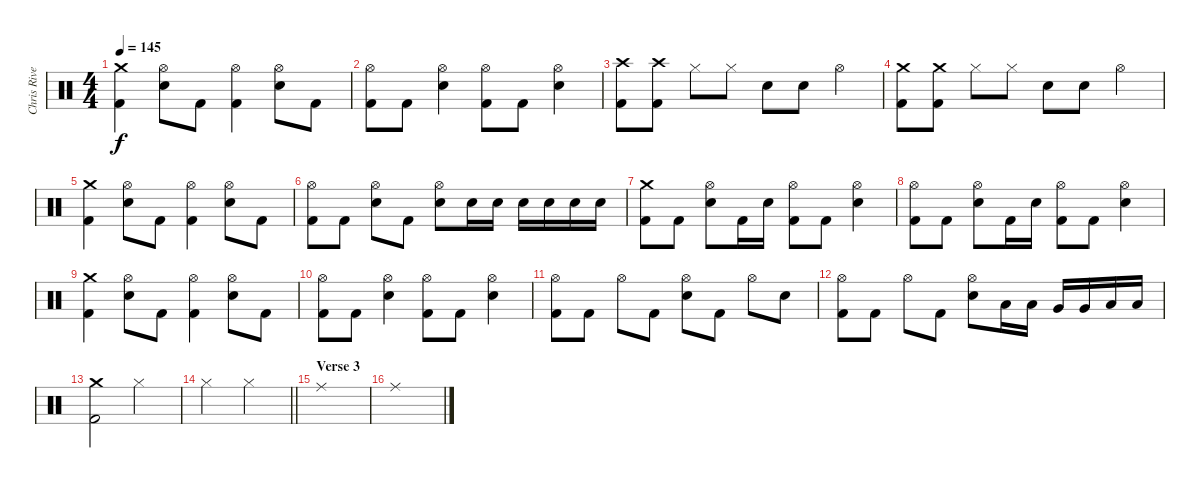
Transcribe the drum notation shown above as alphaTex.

\track ("Chris Rivers" "Chris Rive") {instrument percussion}
\staff {score}
\articulation defaults
\ts (4 4)
\tempo 145
\clef neutral
\ks c
("Crash medium (hit)" "Kick (hit) 2").4{dy f} ("Hi-Hat (open)" "Electric Snare (hit)").8 "Kick (hit) 2".8 ("Hi-Hat (open)" "Kick (hit) 2").4 ("Hi-Hat (open)" "Electric Snare (hit)").8 "Kick (hit) 2".8 |
("Hi-Hat (open)" "Kick (hit) 2").8 "Kick (hit) 2".8 ("Hi-Hat (open)" "Electric Snare (hit)").4 ("Hi-Hat (open)" "Kick (hit) 2").8 "Kick (hit) 2".8 ("Hi-Hat (open)" "Electric Snare (hit)").4 |
("Crash high (hit)" "Kick (hit) 2").8 ("Crash high (hit)" "Kick (hit) 2").8 "Hi-Hat (closed)".8 "Hi-Hat (closed)".8 "Electric Snare (hit)".8 "Electric Snare (hit)".8 "Hi-Hat (open)".4 |
("Crash medium (hit)" "Kick (hit) 2").8 ("Crash medium (hit)" "Kick (hit) 2").8 "Hi-Hat (closed)".8 "Hi-Hat (closed)".8 "Electric Snare (hit)".8 "Electric Snare (hit)".8 "Hi-Hat (open)".4 |
("Crash medium (hit)" "Kick (hit) 2").4 ("Hi-Hat (open)" "Electric Snare (hit)").8 "Kick (hit) 2".8 ("Hi-Hat (open)" "Kick (hit) 2").4 ("Hi-Hat (open)" "Electric Snare (hit)").8 "Kick (hit) 2".8 |
("Hi-Hat (open)" "Kick (hit) 2").8 "Kick (hit) 2".8 ("Hi-Hat (open)" "Electric Snare (hit)").8 "Kick (hit) 2".8 ("Hi-Hat (open)" "Electric Snare (hit)").8 "Electric Snare (hit)".16 "Electric Snare (hit)".16 "Electric Snare (hit)".16 "Electric Snare (hit)".16 "Electric Snare (hit)".16 "Electric Snare (hit)".16 |
("Crash medium (hit)" "Kick (hit) 2").8 "Kick (hit) 2".8 ("Hi-Hat (open)" "Electric Snare (hit)").8 "Kick (hit) 2".16 "Electric Snare (hit)".16 ("Hi-Hat (open)" "Kick (hit) 2").8 "Kick (hit) 2".8 ("Hi-Hat (open)" "Electric Snare (hit)").4 |
("Hi-Hat (open)" "Kick (hit) 2").8 "Kick (hit) 2".8 ("Hi-Hat (open)" "Electric Snare (hit)").8 "Kick (hit) 2".16 "Electric Snare (hit)".16 ("Hi-Hat (open)" "Kick (hit) 2").8 "Kick (hit) 2".8 ("Hi-Hat (open)" "Electric Snare (hit)").4 |
("Crash medium (hit)" "Kick (hit) 2").4 ("Hi-Hat (open)" "Electric Snare (hit)").8 "Kick (hit) 2".8 ("Hi-Hat (open)" "Kick (hit) 2").4 ("Hi-Hat (open)" "Electric Snare (hit)").8 "Kick (hit) 2".8 |
("Hi-Hat (open)" "Kick (hit) 2").8 "Kick (hit) 2".8 ("Hi-Hat (open)" "Electric Snare (hit)").4 ("Hi-Hat (open)" "Kick (hit) 2").8 "Kick (hit) 2".8 ("Hi-Hat (open)" "Electric Snare (hit)").4 |
("Hi-Hat (open)" "Kick (hit) 2").8 "Kick (hit) 2".8 "Hi-Hat (open)".8 "Kick (hit) 2".8 ("Hi-Hat (open)" "Electric Snare (hit)").8 "Kick (hit) 2".8 "Hi-Hat (open)".8 "Electric Snare (hit)".8 |
("Hi-Hat (open)" "Kick (hit) 2").8 "Kick (hit) 2".8 "Hi-Hat (open)".8 "Kick (hit) 2".8 ("Hi-Hat (open)" "Electric Snare (hit)").8 "Low Tom (hit)".16 "Low Tom (hit)".16 "Very Low Tom (hit)".16 "Very Low Tom (hit)".16 "Low Floor Tom (hit)".16 "Low Floor Tom (hit)".16 |
("Crash medium (hit)" "Kick (hit) 2").2 "Hi-Hat (closed)".2 |
\barLineRight lightlight "Hi-Hat (closed)".2 "Hi-Hat (closed)".2
|
\section ("" "Verse 3")
"Ride (middle)".1 |
"Ride (middle)".1
